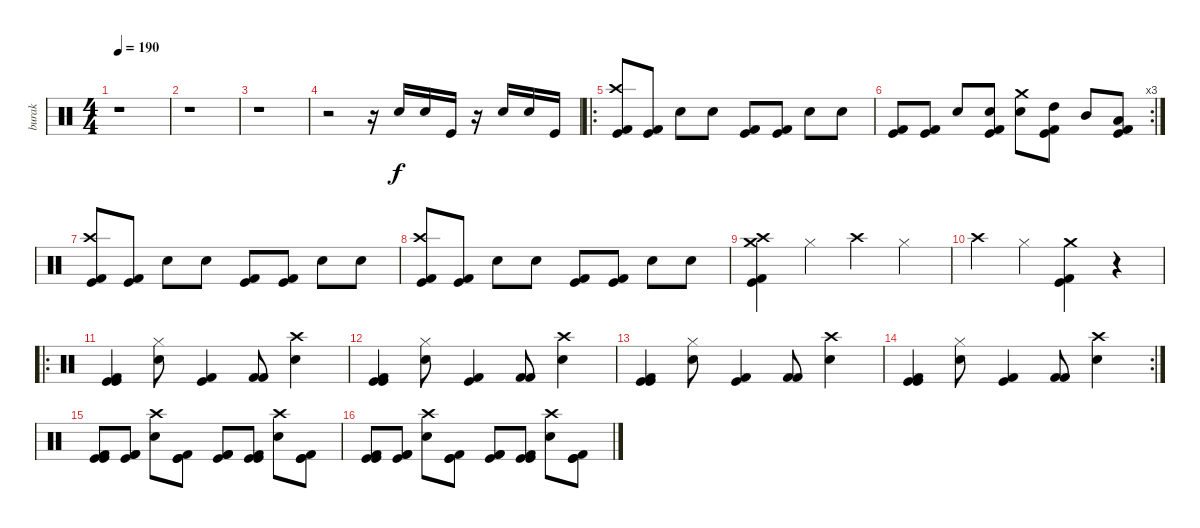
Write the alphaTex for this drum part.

\track ("burak" "burak") {instrument percussion}
\staff {score}
\articulation defaults
\ts (4 4)
\tempo 190
\clef neutral
\ks c
r.1{dy f} |
r.1 |
r.1 |
r.2 r.16 "Electric Snare (hit)".16 "Electric Snare (hit)".16 "Kick (hit)".16 r.16 "Electric Snare (hit)".16 "Electric Snare (hit)".16 "Kick (hit)".16 |
\ro
("Crash high (hit)" "Kick (hit)" "Kick (hit) 2").8 ("Kick (hit)" "Kick (hit) 2").8 "Electric Snare (hit)".8 "Electric Snare (hit)".8 ("Kick (hit)" "Kick (hit) 2").8 ("Kick (hit)" "Kick (hit) 2").8 "Electric Snare (hit)".8 "Electric Snare (hit)".8 |
\rc 3
("Kick (hit) 2" "Kick (hit)").8 ("Kick (hit)" "Kick (hit) 2").8 "Electric Snare (hit)".8 ("Electric Snare (hit)" "Kick (hit)" "Kick (hit) 2").8 ("Crash medium (hit)" "Snare (hit) 2").8 ("High Tom (hit)" "Kick (hit)" "Kick (hit) 2").8 "Mid Tom (hit)".8 ("Low Tom (hit)" "Kick (hit)" "Kick (hit) 2").8 |
("Crash high (hit)" "Kick (hit)" "Kick (hit) 2").8 ("Kick (hit)" "Kick (hit) 2").8 "Electric Snare (hit)".8 "Electric Snare (hit)".8 ("Kick (hit)" "Kick (hit) 2").8 ("Kick (hit)" "Kick (hit) 2").8 "Electric Snare (hit)".8 "Electric Snare (hit)".8 |
("Crash high (hit)" "Kick (hit)" "Kick (hit) 2").8 ("Kick (hit)" "Kick (hit) 2").8 "Electric Snare (hit)".8 "Electric Snare (hit)".8 ("Kick (hit)" "Kick (hit) 2").8 ("Kick (hit)" "Kick (hit) 2").8 "Electric Snare (hit)".8 "Electric Snare (hit)".8 |
("Crash medium (hit)" "Crash high (hit)" "Kick (hit) 2" "Kick (hit)").4 "Hi-Hat (closed)".4 "Crash high (hit)".4 "Hi-Hat (closed)".4 |
"Crash high (hit)".4 "Hi-Hat (closed)".4 ("Crash medium (hit)" "Kick (hit)" "Kick (hit) 2").4 r.4 |
\ro
("Kick (hit)" "Kick (hit)" "Kick (hit) 2").4 ("Hi-Hat (closed)" "Electric Snare (hit)").8 ("Kick (hit)" "Kick (hit) 2").4 ("Kick (hit) 2" "Kick (hit) 2").8 ("Crash high (hit)" "Electric Snare (hit)").4 |
("Kick (hit)" "Kick (hit)" "Kick (hit) 2").4 ("Hi-Hat (closed)" "Electric Snare (hit)").8 ("Kick (hit)" "Kick (hit) 2").4 ("Kick (hit) 2" "Kick (hit) 2").8 ("Crash high (hit)" "Electric Snare (hit)").4 |
("Kick (hit)" "Kick (hit)" "Kick (hit) 2").4 ("Hi-Hat (closed)" "Electric Snare (hit)").8 ("Kick (hit)" "Kick (hit) 2").4 ("Kick (hit) 2" "Kick (hit) 2").8 ("Crash high (hit)" "Electric Snare (hit)").4 |
\rc 2
("Kick (hit)" "Kick (hit)" "Kick (hit) 2").4 ("Hi-Hat (closed)" "Electric Snare (hit)").8 ("Kick (hit)" "Kick (hit) 2").4 ("Kick (hit) 2" "Kick (hit) 2").8 ("Crash high (hit)" "Electric Snare (hit)").4 |
("Kick (hit)" "Kick (hit)" "Kick (hit) 2").8 ("Kick (hit)" "Kick (hit) 2" "Kick (hit) 2").8 ("Crash high (hit)" "Electric Snare (hit)").8 ("Kick (hit)" "Kick (hit)" "Kick (hit) 2").8 ("Kick (hit) 2" "Kick (hit)" "Kick (hit) 2").8 ("Kick (hit)" "Kick (hit)" "Kick (hit) 2").8 ("Crash high (hit)" "Electric Snare (hit)").8 ("Kick (hit)" "Kick (hit)" "Kick (hit) 2").8 |
("Kick (hit)" "Kick (hit)" "Kick (hit) 2").8 ("Kick (hit)" "Kick (hit) 2" "Kick (hit) 2").8 ("Crash high (hit)" "Electric Snare (hit)").8 ("Kick (hit)" "Kick (hit)" "Kick (hit) 2").8 ("Kick (hit) 2" "Kick (hit)" "Kick (hit) 2").8 ("Kick (hit)" "Kick (hit)" "Kick (hit) 2").8 ("Crash high (hit)" "Electric Snare (hit)").8 ("Kick (hit)" "Kick (hit)" "Kick (hit) 2").8
